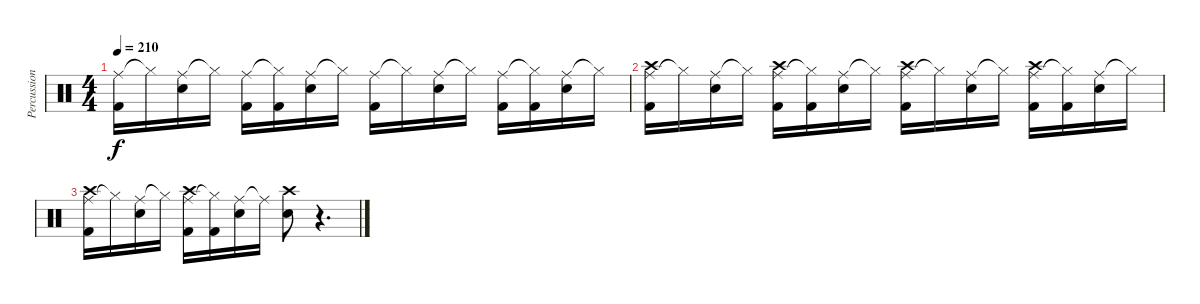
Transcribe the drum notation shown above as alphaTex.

\track ("Percussion" "Percussion") {instrument percussion}
\staff {score}
\articulation defaults
\ts (4 4)
\tempo 210
\clef neutral
\ks c
("Ride (middle)" "Kick (hit) 2").16{dy f} "Hi-Hat (closed)"{t}.16 ("Ride (middle)" "Snare (hit) 2").16 "Hi-Hat (closed)"{t}.16 ("Ride (middle)" "Kick (hit) 2").16 ("Hi-Hat (closed)"{t} "Kick (hit) 2").16 ("Ride (middle)" "Snare (hit) 2").16 "Hi-Hat (closed)"{t}.16 ("Ride (middle)" "Kick (hit) 2").16 "Hi-Hat (closed)"{t}.16 ("Ride (middle)" "Snare (hit) 2").16 "Hi-Hat (closed)"{t}.16 ("Ride (middle)" "Kick (hit) 2").16 ("Hi-Hat (closed)"{t} "Kick (hit) 2").16 ("Ride (middle)" "Snare (hit) 2").16 "Hi-Hat (closed)"{t}.16 |
("Ride (middle)" "Crash high (hit)" "Kick (hit) 2").16 "Hi-Hat (closed)"{t}.16 ("Ride (middle)" "Snare (hit) 2").16 "Hi-Hat (closed)"{t}.16 ("Ride (middle)" "Crash high (hit)" "Kick (hit) 2").16 ("Hi-Hat (closed)"{t} "Kick (hit) 2").16 ("Ride (middle)" "Snare (hit) 2").16 "Hi-Hat (closed)"{t}.16 ("Ride (middle)" "Crash high (hit)" "Kick (hit) 2").16 "Hi-Hat (closed)"{t}.16 ("Ride (middle)" "Snare (hit) 2").16 "Hi-Hat (closed)"{t}.16 ("Ride (middle)" "Crash high (hit)" "Kick (hit) 2").16 ("Hi-Hat (closed)"{t} "Kick (hit) 2").16 ("Ride (middle)" "Snare (hit) 2").16 "Hi-Hat (closed)"{t}.16 |
("Ride (middle)" "Crash high (hit)" "Kick (hit) 2").16 "Hi-Hat (closed)"{t}.16 ("Ride (middle)" "Snare (hit) 2").16 "Hi-Hat (closed)"{t}.16 ("Ride (middle)" "Crash high (hit)" "Kick (hit) 2").16 ("Hi-Hat (closed)"{t} "Kick (hit) 2").16 ("Ride (middle)" "Snare (hit) 2").16 "Ride (middle)"{t}.16 ("Crash high (hit)" "Snare (hit) 2").8 r.4{d}
